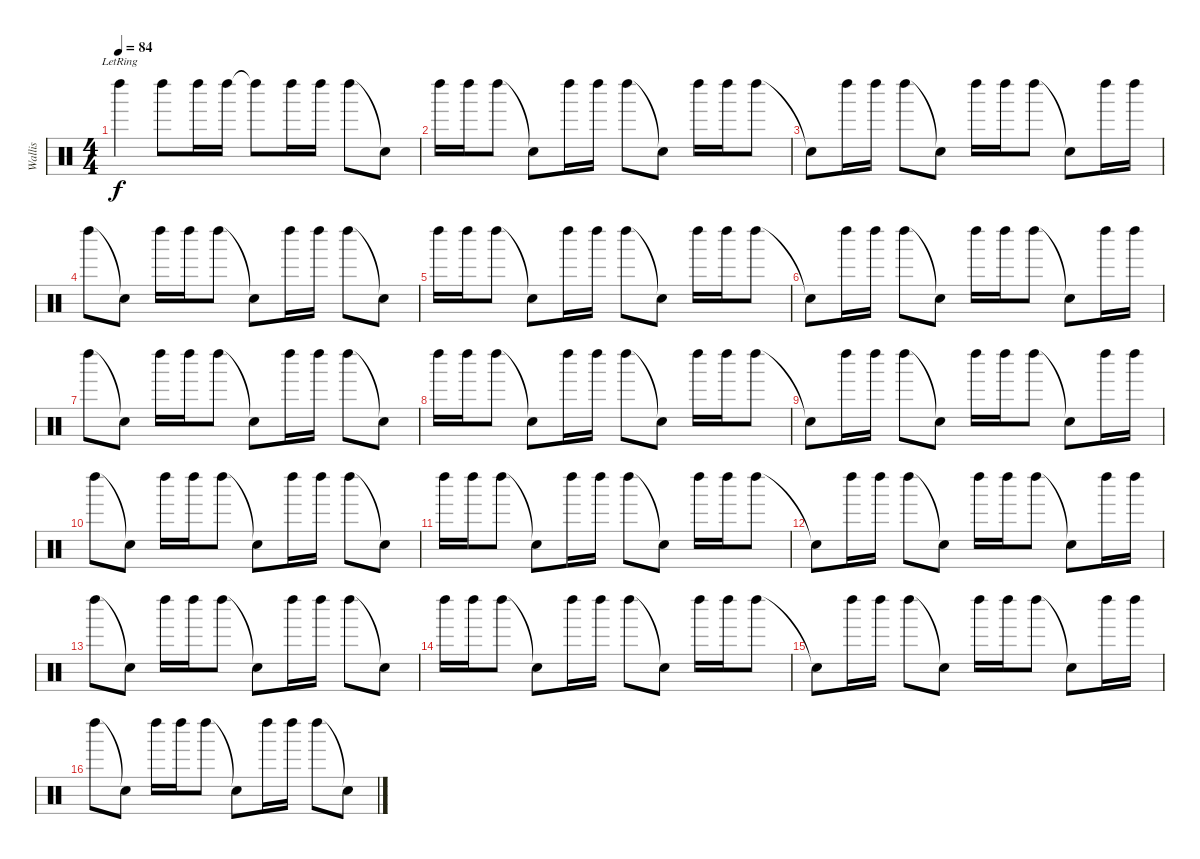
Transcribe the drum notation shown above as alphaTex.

\track ("Wallis" "Wallis") {instrument percussion}
\staff {score}
\articulation defaults
\ts (4 4)
\tempo 84
\clef neutral
\ks c "Left Maraca (hit)"{lr}.4{dy f} "Left Maraca (hit)".8 "Left Maraca (hit)".16 "Left Maraca (hit)".16 "Left Maraca (hit)"{t}.8 "Left Maraca (hit)".16 "Left Maraca (hit)".16 "Left Maraca (hit)".8 "Snare (hit)"{t}.8
|
"Left Maraca (hit)".16 "Left Maraca (hit)".16 "Left Maraca (hit)".8 "Snare (hit)"{t}.8 "Left Maraca (hit)".16 "Left Maraca (hit)".16 "Left Maraca (hit)".8 "Snare (hit)"{t}.8 "Left Maraca (hit)".16 "Left Maraca (hit)".16 "Left Maraca (hit)".8 |
"Snare (hit)"{t}.8 "Left Maraca (hit)".16 "Left Maraca (hit)".16 "Left Maraca (hit)".8 "Snare (hit)"{t}.8 "Left Maraca (hit)".16 "Left Maraca (hit)".16 "Left Maraca (hit)".8 "Snare (hit)"{t}.8 "Left Maraca (hit)".16 "Left Maraca (hit)".16 |
"Left Maraca (hit)".8 "Snare (hit)"{t}.8 "Left Maraca (hit)".16 "Left Maraca (hit)".16 "Left Maraca (hit)".8 "Snare (hit)"{t}.8 "Left Maraca (hit)".16 "Left Maraca (hit)".16 "Left Maraca (hit)".8 "Snare (hit)"{t}.8 |
"Left Maraca (hit)".16 "Left Maraca (hit)".16 "Left Maraca (hit)".8 "Snare (hit)"{t}.8 "Left Maraca (hit)".16 "Left Maraca (hit)".16 "Left Maraca (hit)".8 "Snare (hit)"{t}.8 "Left Maraca (hit)".16 "Left Maraca (hit)".16 "Left Maraca (hit)".8 |
"Snare (hit)"{t}.8 "Left Maraca (hit)".16 "Left Maraca (hit)".16 "Left Maraca (hit)".8 "Snare (hit)"{t}.8 "Left Maraca (hit)".16 "Left Maraca (hit)".16 "Left Maraca (hit)".8 "Snare (hit)"{t}.8 "Left Maraca (hit)".16 "Left Maraca (hit)".16 |
"Left Maraca (hit)".8 "Snare (hit)"{t}.8 "Left Maraca (hit)".16 "Left Maraca (hit)".16 "Left Maraca (hit)".8 "Snare (hit)"{t}.8 "Left Maraca (hit)".16 "Left Maraca (hit)".16 "Left Maraca (hit)".8 "Snare (hit)"{t}.8 |
"Left Maraca (hit)".16 "Left Maraca (hit)".16 "Left Maraca (hit)".8 "Snare (hit)"{t}.8 "Left Maraca (hit)".16 "Left Maraca (hit)".16 "Left Maraca (hit)".8 "Snare (hit)"{t}.8 "Left Maraca (hit)".16 "Left Maraca (hit)".16 "Left Maraca (hit)".8 |
"Snare (hit)"{t}.8 "Left Maraca (hit)".16 "Left Maraca (hit)".16 "Left Maraca (hit)".8 "Snare (hit)"{t}.8 "Left Maraca (hit)".16 "Left Maraca (hit)".16 "Left Maraca (hit)".8 "Snare (hit)"{t}.8 "Left Maraca (hit)".16 "Left Maraca (hit)".16 |
"Left Maraca (hit)".8 "Snare (hit)"{t}.8 "Left Maraca (hit)".16 "Left Maraca (hit)".16 "Left Maraca (hit)".8 "Snare (hit)"{t}.8 "Left Maraca (hit)".16 "Left Maraca (hit)".16 "Left Maraca (hit)".8 "Snare (hit)"{t}.8 |
"Left Maraca (hit)".16 "Left Maraca (hit)".16 "Left Maraca (hit)".8 "Snare (hit)"{t}.8 "Left Maraca (hit)".16 "Left Maraca (hit)".16 "Left Maraca (hit)".8 "Snare (hit)"{t}.8 "Left Maraca (hit)".16 "Left Maraca (hit)".16 "Left Maraca (hit)".8 |
"Snare (hit)"{t}.8 "Left Maraca (hit)".16 "Left Maraca (hit)".16 "Left Maraca (hit)".8 "Snare (hit)"{t}.8 "Left Maraca (hit)".16 "Left Maraca (hit)".16 "Left Maraca (hit)".8 "Snare (hit)"{t}.8 "Left Maraca (hit)".16 "Left Maraca (hit)".16 |
"Left Maraca (hit)".8 "Snare (hit)"{t}.8 "Left Maraca (hit)".16 "Left Maraca (hit)".16 "Left Maraca (hit)".8 "Snare (hit)"{t}.8 "Left Maraca (hit)".16 "Left Maraca (hit)".16 "Left Maraca (hit)".8 "Snare (hit)"{t}.8 |
"Left Maraca (hit)".16 "Left Maraca (hit)".16 "Left Maraca (hit)".8 "Snare (hit)"{t}.8 "Left Maraca (hit)".16 "Left Maraca (hit)".16 "Left Maraca (hit)".8 "Snare (hit)"{t}.8 "Left Maraca (hit)".16 "Left Maraca (hit)".16 "Left Maraca (hit)".8 |
"Snare (hit)"{t}.8 "Left Maraca (hit)".16 "Left Maraca (hit)".16 "Left Maraca (hit)".8 "Snare (hit)"{t}.8 "Left Maraca (hit)".16 "Left Maraca (hit)".16 "Left Maraca (hit)".8 "Snare (hit)"{t}.8 "Left Maraca (hit)".16 "Left Maraca (hit)".16 |
"Left Maraca (hit)".8 "Snare (hit)"{t}.8 "Left Maraca (hit)".16 "Left Maraca (hit)".16 "Left Maraca (hit)".8 "Snare (hit)"{t}.8 "Left Maraca (hit)".16 "Left Maraca (hit)".16 "Left Maraca (hit)".8 "Snare (hit)"{t}.8
